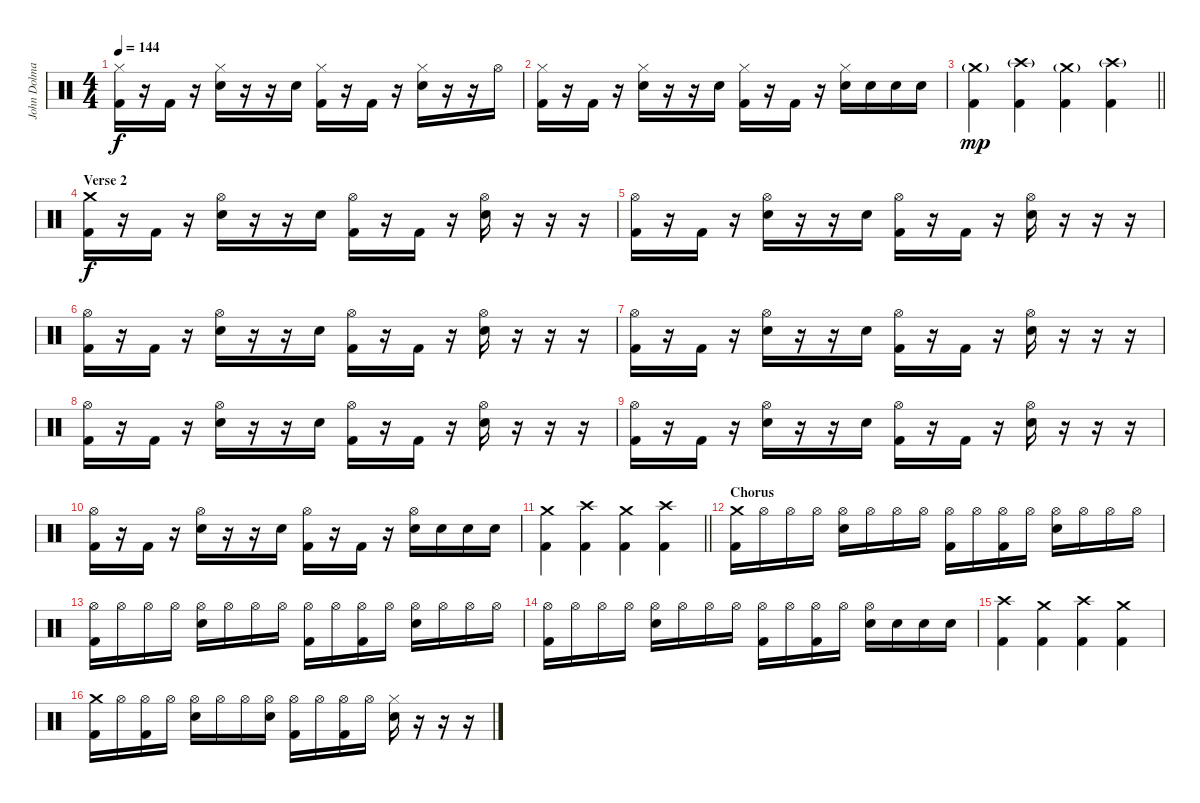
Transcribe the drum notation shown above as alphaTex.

\track ("John Dolmayan" "John Dolma") {instrument percussion}
\staff {score}
\articulation defaults
\ts (4 4)
\tempo 144
\clef neutral
\ks c
("Hi-Hat (closed)" "Kick (hit) 2").16{dy f} r.16 "Kick (hit) 2".16 r.16 ("Hi-Hat (closed)" "Electric Snare (hit)").16 r.16 r.16 "Electric Snare (hit)".16 ("Hi-Hat (closed)" "Kick (hit) 2").16 r.16 "Kick (hit) 2".16 r.16 ("Hi-Hat (closed)" "Electric Snare (hit)").16 r.16 r.16 "Hi-Hat (open)".16 |
("Hi-Hat (closed)" "Kick (hit) 2").16 r.16 "Kick (hit) 2".16 r.16 ("Hi-Hat (closed)" "Electric Snare (hit)").16 r.16 r.16 "Electric Snare (hit)".16 ("Hi-Hat (closed)" "Kick (hit) 2").16 r.16 "Kick (hit) 2".16 r.16 ("Hi-Hat (closed)" "Electric Snare (hit)").16 "Electric Snare (hit)".16 "Electric Snare (hit)".16 "Electric Snare (hit)".16 |
\barLineRight lightlight
("Crash medium (hit)"{g} "Kick (hit) 2").4{dy mp} ("Crash high (hit)"{g} "Kick (hit) 2").4 ("Crash medium (hit)"{g} "Kick (hit) 2").4 ("Crash high (hit)"{g} "Kick (hit) 2").4 |
\section ("" "Verse 2")
("Crash medium (hit)" "Kick (hit) 2").16{dy f} r.16 "Kick (hit) 2".16 r.16 ("Hi-Hat (open)" "Electric Snare (hit)").16 r.16 r.16 "Electric Snare (hit)".16 ("Hi-Hat (open)" "Kick (hit) 2").16 r.16 "Kick (hit) 2".16 r.16 ("Hi-Hat (open)" "Electric Snare (hit)").16 r.16 r.16 r.16 |
("Hi-Hat (open)" "Kick (hit) 2").16 r.16 "Kick (hit) 2".16 r.16 ("Hi-Hat (open)" "Electric Snare (hit)").16 r.16 r.16 "Electric Snare (hit)".16 ("Hi-Hat (open)" "Kick (hit) 2").16 r.16 "Kick (hit) 2".16 r.16 ("Hi-Hat (open)" "Electric Snare (hit)").16 r.16 r.16 r.16 |
("Hi-Hat (open)" "Kick (hit) 2").16 r.16 "Kick (hit) 2".16 r.16 ("Hi-Hat (open)" "Electric Snare (hit)").16 r.16 r.16 "Electric Snare (hit)".16 ("Hi-Hat (open)" "Kick (hit) 2").16 r.16 "Kick (hit) 2".16 r.16 ("Hi-Hat (open)" "Electric Snare (hit)").16 r.16 r.16 r.16 |
("Hi-Hat (open)" "Kick (hit) 2").16 r.16 "Kick (hit) 2".16 r.16 ("Hi-Hat (open)" "Electric Snare (hit)").16 r.16 r.16 "Electric Snare (hit)".16 ("Hi-Hat (open)" "Kick (hit) 2").16 r.16 "Kick (hit) 2".16 r.16 ("Hi-Hat (open)" "Electric Snare (hit)").16 r.16 r.16 r.16 |
("Hi-Hat (open)" "Kick (hit) 2").16 r.16 "Kick (hit) 2".16 r.16 ("Hi-Hat (open)" "Electric Snare (hit)").16 r.16 r.16 "Electric Snare (hit)".16 ("Hi-Hat (open)" "Kick (hit) 2").16 r.16 "Kick (hit) 2".16 r.16 ("Hi-Hat (open)" "Electric Snare (hit)").16 r.16 r.16 r.16 |
("Hi-Hat (open)" "Kick (hit) 2").16 r.16 "Kick (hit) 2".16 r.16 ("Hi-Hat (open)" "Electric Snare (hit)").16 r.16 r.16 "Electric Snare (hit)".16 ("Hi-Hat (open)" "Kick (hit) 2").16 r.16 "Kick (hit) 2".16 r.16 ("Hi-Hat (open)" "Electric Snare (hit)").16 r.16 r.16 r.16 |
("Hi-Hat (open)" "Kick (hit) 2").16 r.16 "Kick (hit) 2".16 r.16 ("Hi-Hat (open)" "Electric Snare (hit)").16 r.16 r.16 "Electric Snare (hit)".16 ("Hi-Hat (open)" "Kick (hit) 2").16 r.16 "Kick (hit) 2".16 r.16 ("Hi-Hat (open)" "Electric Snare (hit)").16 "Electric Snare (hit)".16 "Electric Snare (hit)".16 "Electric Snare (hit)".16 |
\barLineRight lightlight
("Crash medium (hit)" "Kick (hit) 2").4 ("Crash high (hit)" "Kick (hit) 2").4 ("Crash medium (hit)" "Kick (hit) 2").4 ("Crash high (hit)" "Kick (hit) 2").4 |
\section ("" "Chorus")
("Crash medium (hit)" "Kick (hit) 2").16 "Hi-Hat (open)".16 "Hi-Hat (open)".16 "Hi-Hat (open)".16 ("Hi-Hat (open)" "Electric Snare (hit)").16 "Hi-Hat (open)".16 "Hi-Hat (open)".16 "Hi-Hat (open)".16 ("Hi-Hat (open)" "Kick (hit) 2").16 "Hi-Hat (open)".16 ("Hi-Hat (open)" "Kick (hit) 2").16 "Hi-Hat (open)".16 ("Hi-Hat (open)" "Electric Snare (hit)").16 "Hi-Hat (open)".16 "Hi-Hat (open)".16 "Hi-Hat (open)".16 |
("Hi-Hat (open)" "Kick (hit) 2").16 "Hi-Hat (open)".16 "Hi-Hat (open)".16 "Hi-Hat (open)".16 ("Hi-Hat (open)" "Electric Snare (hit)").16 "Hi-Hat (open)".16 "Hi-Hat (open)".16 "Hi-Hat (open)".16 ("Hi-Hat (open)" "Kick (hit) 2").16 "Hi-Hat (open)".16 ("Hi-Hat (open)" "Kick (hit) 2").16 "Hi-Hat (open)".16 ("Hi-Hat (open)" "Electric Snare (hit)").16 "Hi-Hat (open)".16 "Hi-Hat (open)".16 "Hi-Hat (open)".16 |
("Hi-Hat (open)" "Kick (hit) 2").16 "Hi-Hat (open)".16 "Hi-Hat (open)".16 "Hi-Hat (open)".16 ("Hi-Hat (open)" "Electric Snare (hit)").16 "Hi-Hat (open)".16 "Hi-Hat (open)".16 "Hi-Hat (open)".16 ("Hi-Hat (open)" "Kick (hit) 2").16 "Hi-Hat (open)".16 ("Hi-Hat (open)" "Kick (hit) 2").16 "Hi-Hat (open)".16 ("Hi-Hat (open)" "Electric Snare (hit)").16 "Electric Snare (hit)".16 "Electric Snare (hit)".16 "Electric Snare (hit)".16 |
("Crash high (hit)" "Kick (hit) 2").4 ("Crash medium (hit)" "Kick (hit) 2").4 ("Crash high (hit)" "Kick (hit) 2").4 ("Crash medium (hit)" "Kick (hit) 2").4 |
("Crash medium (hit)" "Kick (hit) 2").16 "Hi-Hat (open)".16 ("Hi-Hat (open)" "Kick (hit) 2").16 "Hi-Hat (open)".16 ("Hi-Hat (open)" "Electric Snare (hit)").16 "Hi-Hat (open)".16 "Hi-Hat (open)".16 ("Hi-Hat (open)" "Electric Snare (hit)").16 ("Hi-Hat (open)" "Kick (hit) 2").16 "Hi-Hat (open)".16 ("Hi-Hat (open)" "Kick (hit) 2").16 "Hi-Hat (open)".16 ("Hi-Hat (closed)" "Electric Snare (hit)").16 r.16 r.16 r.16
